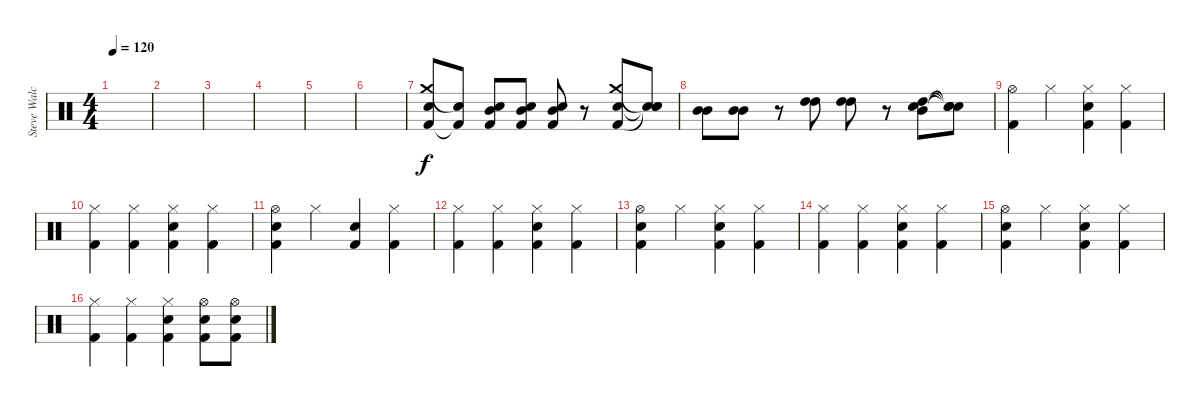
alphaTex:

\track ("Steve Walchoz" "Steve Walc") {instrument percussion}
\staff {score}
\articulation defaults
\ts (4 4)
\tempo 120
\clef neutral
\ks c
|
|
|
|
|
|
("Kick (hit) 2" "Crash medium (hit)" "Electric Snare (hit)").8 ("Kick (hit) 2"{t} "Snare (hit)"{t}).8 ("Mid Tom (hit)" "Kick (hit) 2" "Electric Snare (hit)").8 ("Mid Tom (hit)" "Kick (hit) 2" "Electric Snare (hit)").8 ("Mid Tom (hit)" "Kick (hit) 2" "Electric Snare (hit)").8 r.8 ("Electric Snare (hit)" "Crash medium (hit)" "Kick (hit) 2").8 ("Snare (hit)"{t} "Snare (hit)"{t} "Snare (hit)"{t}).8 |
("Mid Tom (hit)" "Mid Tom (hit)").8 ("Mid Tom (hit)" "Mid Tom (hit)").8 r.8 ("High Tom (hit)" "High Tom (hit)").8 ("High Tom (hit)" "High Tom (hit)").8 r.8 ("Electric Snare (hit)" "Mid Tom (hit)" "High Tom (hit)").8 ("Snare (hit)"{t} "Snare (hit)"{t} "Snare (hit)"{t}).8 |
("Kick (hit) 2" "Hi-Hat (open)").4 "Hi-Hat (closed)".4 ("Kick (hit) 2" "Electric Snare (hit)" "Hi-Hat (closed)").4 ("Kick (hit) 2" "Hi-Hat (closed)").4 |
("Kick (hit) 2" "Hi-Hat (closed)").4 ("Kick (hit) 2" "Hi-Hat (closed)").4 ("Kick (hit) 2" "Electric Snare (hit)" "Hi-Hat (closed)").4 ("Kick (hit) 2" "Hi-Hat (closed)").4 |
("Kick (hit) 2" "Snare (hit) 2" "Hi-Hat (open)").4 "Hi-Hat (closed)".4 ("Kick (hit) 2" "Electric Snare (hit)").4 ("Kick (hit) 2" "Hi-Hat (closed)").4 |
("Kick (hit) 2" "Hi-Hat (closed)").4 ("Kick (hit) 2" "Hi-Hat (closed)").4 ("Kick (hit) 2" "Electric Snare (hit)" "Hi-Hat (closed)").4 ("Kick (hit) 2" "Hi-Hat (closed)").4 |
("Kick (hit) 2" "Snare (hit) 2" "Hi-Hat (open)").4 "Hi-Hat (closed)".4 ("Kick (hit) 2" "Electric Snare (hit)" "Hi-Hat (closed)").4 ("Kick (hit) 2" "Hi-Hat (closed)").4 |
("Kick (hit) 2" "Hi-Hat (closed)").4 ("Kick (hit) 2" "Hi-Hat (closed)").4 ("Kick (hit) 2" "Electric Snare (hit)" "Hi-Hat (closed)").4 ("Kick (hit) 2" "Hi-Hat (closed)").4 |
("Kick (hit) 2" "Snare (hit) 2" "Hi-Hat (open)").4 "Hi-Hat (closed)".4 ("Kick (hit) 2" "Electric Snare (hit)" "Hi-Hat (closed)").4 ("Kick (hit) 2" "Hi-Hat (closed)").4 |
("Kick (hit) 2" "Hi-Hat (closed)").4 ("Kick (hit) 2" "Hi-Hat (closed)").4 ("Kick (hit) 2" "Electric Snare (hit)" "Hi-Hat (closed)").4 ("Kick (hit) 2" "Snare (hit) 2" "Hi-Hat (open)").8 ("Kick (hit) 2" "Snare (hit) 2" "Hi-Hat (open)").8
